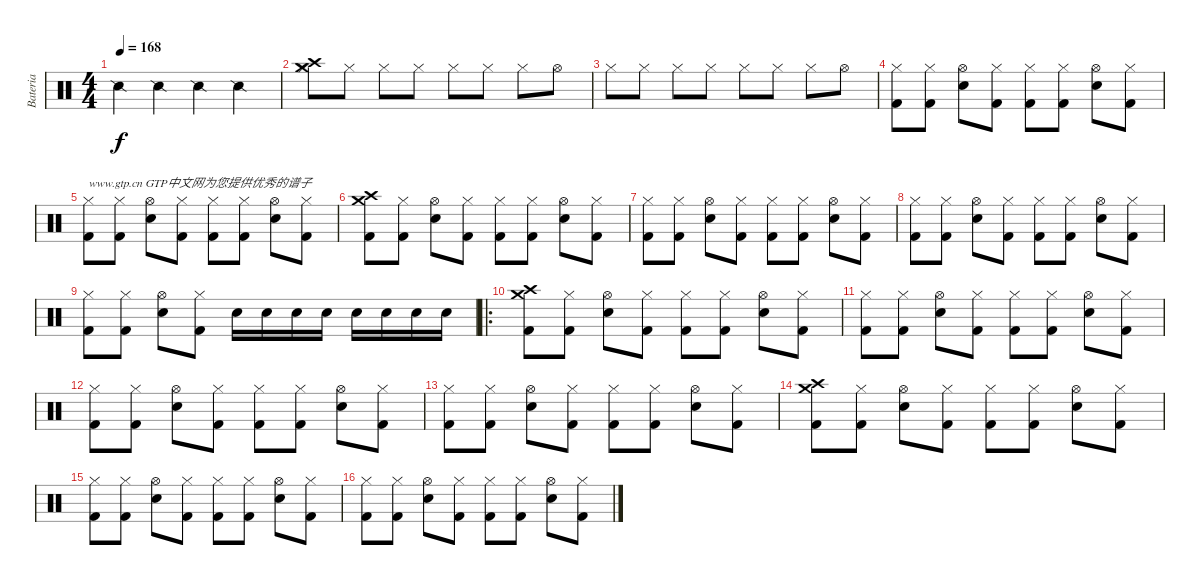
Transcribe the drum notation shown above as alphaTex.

\track ("Bateria" "Bateria") {instrument percussion}
\staff {score}
\articulation defaults
\ts (4 4)
\tempo 168
\clef neutral
\ks c "Snare (side stick) 2".4{dy f} "Snare (side stick) 2".4 "Snare (side stick) 2".4 "Snare (side stick) 2".4
|
("Crash medium (hit)" "Crash high (hit)" "Hi-Hat (closed)").8 "Hi-Hat (closed)".8 "Hi-Hat (closed)".8 "Hi-Hat (closed)".8 "Hi-Hat (closed)".8 "Hi-Hat (closed)".8 "Hi-Hat (closed)".8 "Hi-Hat (open)".8 |
"Hi-Hat (closed)".8 "Hi-Hat (closed)".8 "Hi-Hat (closed)".8 "Hi-Hat (closed)".8 "Hi-Hat (closed)".8 "Hi-Hat (closed)".8 "Hi-Hat (closed)".8 "Hi-Hat (open)".8 |
("Hi-Hat (closed)" "Kick (hit) 2").8 ("Hi-Hat (closed)" "Kick (hit) 2").8 ("Hi-Hat (open)" "Snare (hit) 2").8 ("Hi-Hat (closed)" "Kick (hit) 2").8 ("Hi-Hat (closed)" "Kick (hit) 2").8 ("Hi-Hat (closed)" "Kick (hit) 2").8 ("Hi-Hat (open)" "Snare (hit) 2").8 ("Hi-Hat (closed)" "Kick (hit) 2").8 |
("Hi-Hat (closed)" "Kick (hit) 2").8{txt "www.gtp.cn GTP中文网为您提供优秀的谱子"} ("Hi-Hat (closed)" "Kick (hit) 2").8 ("Hi-Hat (open)" "Snare (hit) 2").8 ("Hi-Hat (closed)" "Kick (hit) 2").8 ("Hi-Hat (closed)" "Kick (hit) 2").8 ("Hi-Hat (closed)" "Kick (hit) 2").8 ("Hi-Hat (open)" "Snare (hit) 2").8 ("Hi-Hat (closed)" "Kick (hit) 2").8 |
("Crash high (hit)" "Crash medium (hit)" "Kick (hit) 2").8 ("Hi-Hat (closed)" "Kick (hit) 2").8 ("Hi-Hat (open)" "Snare (hit) 2").8 ("Hi-Hat (closed)" "Kick (hit) 2").8 ("Hi-Hat (closed)" "Kick (hit) 2").8 ("Hi-Hat (closed)" "Kick (hit) 2").8 ("Hi-Hat (open)" "Snare (hit) 2").8 ("Hi-Hat (closed)" "Kick (hit) 2").8 |
("Hi-Hat (closed)" "Kick (hit) 2").8 ("Hi-Hat (closed)" "Kick (hit) 2").8 ("Hi-Hat (open)" "Snare (hit) 2").8 ("Hi-Hat (closed)" "Kick (hit) 2").8 ("Hi-Hat (closed)" "Kick (hit) 2").8 ("Hi-Hat (closed)" "Kick (hit) 2").8 ("Hi-Hat (open)" "Snare (hit) 2").8 ("Hi-Hat (closed)" "Kick (hit) 2").8 |
("Hi-Hat (closed)" "Kick (hit) 2").8 ("Hi-Hat (closed)" "Kick (hit) 2").8 ("Hi-Hat (open)" "Snare (hit) 2").8 ("Hi-Hat (closed)" "Kick (hit) 2").8 ("Hi-Hat (closed)" "Kick (hit) 2").8 ("Hi-Hat (closed)" "Kick (hit) 2").8 ("Hi-Hat (open)" "Snare (hit) 2").8 ("Hi-Hat (closed)" "Kick (hit) 2").8 |
("Hi-Hat (closed)" "Kick (hit) 2").8 ("Hi-Hat (closed)" "Kick (hit) 2").8 ("Hi-Hat (open)" "Snare (hit) 2").8 ("Hi-Hat (closed)" "Kick (hit) 2").8 "Snare (hit) 2".16 "Snare (hit) 2".16 "Snare (hit) 2".16 "Snare (hit) 2".16 "Snare (hit) 2".16 "Snare (hit) 2".16 "Snare (hit) 2".16 "Snare (hit) 2".16 |
\ro
("Crash high (hit)" "Crash medium (hit)" "Kick (hit) 2").8 ("Hi-Hat (closed)" "Kick (hit) 2").8 ("Hi-Hat (open)" "Snare (hit) 2").8 ("Hi-Hat (closed)" "Kick (hit) 2").8 ("Hi-Hat (closed)" "Kick (hit) 2").8 ("Hi-Hat (closed)" "Kick (hit) 2").8 ("Hi-Hat (open)" "Snare (hit) 2").8 ("Hi-Hat (closed)" "Kick (hit) 2").8 |
("Hi-Hat (closed)" "Kick (hit) 2").8 ("Hi-Hat (closed)" "Kick (hit) 2").8 ("Hi-Hat (open)" "Snare (hit) 2").8 ("Hi-Hat (closed)" "Kick (hit) 2").8 ("Hi-Hat (closed)" "Kick (hit) 2").8 ("Hi-Hat (closed)" "Kick (hit) 2").8 ("Hi-Hat (open)" "Snare (hit) 2").8 ("Hi-Hat (closed)" "Kick (hit) 2").8 |
("Hi-Hat (closed)" "Kick (hit) 2").8 ("Hi-Hat (closed)" "Kick (hit) 2").8 ("Hi-Hat (open)" "Snare (hit) 2").8 ("Hi-Hat (closed)" "Kick (hit) 2").8 ("Hi-Hat (closed)" "Kick (hit) 2").8 ("Hi-Hat (closed)" "Kick (hit) 2").8 ("Hi-Hat (open)" "Snare (hit) 2").8 ("Hi-Hat (closed)" "Kick (hit) 2").8 |
("Hi-Hat (closed)" "Kick (hit) 2").8 ("Hi-Hat (closed)" "Kick (hit) 2").8 ("Hi-Hat (open)" "Snare (hit) 2").8 ("Hi-Hat (closed)" "Kick (hit) 2").8 ("Hi-Hat (closed)" "Kick (hit) 2").8 ("Hi-Hat (closed)" "Kick (hit) 2").8 ("Hi-Hat (open)" "Snare (hit) 2").8 ("Hi-Hat (closed)" "Kick (hit) 2").8 |
("Crash high (hit)" "Crash medium (hit)" "Kick (hit) 2").8 ("Hi-Hat (closed)" "Kick (hit) 2").8 ("Hi-Hat (open)" "Snare (hit) 2").8 ("Hi-Hat (closed)" "Kick (hit) 2").8 ("Hi-Hat (closed)" "Kick (hit) 2").8 ("Hi-Hat (closed)" "Kick (hit) 2").8 ("Hi-Hat (open)" "Snare (hit) 2").8 ("Hi-Hat (closed)" "Kick (hit) 2").8 |
("Hi-Hat (closed)" "Kick (hit) 2").8 ("Hi-Hat (closed)" "Kick (hit) 2").8 ("Hi-Hat (open)" "Snare (hit) 2").8 ("Hi-Hat (closed)" "Kick (hit) 2").8 ("Hi-Hat (closed)" "Kick (hit) 2").8 ("Hi-Hat (closed)" "Kick (hit) 2").8 ("Hi-Hat (open)" "Snare (hit) 2").8 ("Hi-Hat (closed)" "Kick (hit) 2").8 |
("Hi-Hat (closed)" "Kick (hit) 2").8 ("Hi-Hat (closed)" "Kick (hit) 2").8 ("Hi-Hat (open)" "Snare (hit) 2").8 ("Hi-Hat (closed)" "Kick (hit) 2").8 ("Hi-Hat (closed)" "Kick (hit) 2").8 ("Hi-Hat (closed)" "Kick (hit) 2").8 ("Hi-Hat (open)" "Snare (hit) 2").8 ("Hi-Hat (closed)" "Kick (hit) 2").8
